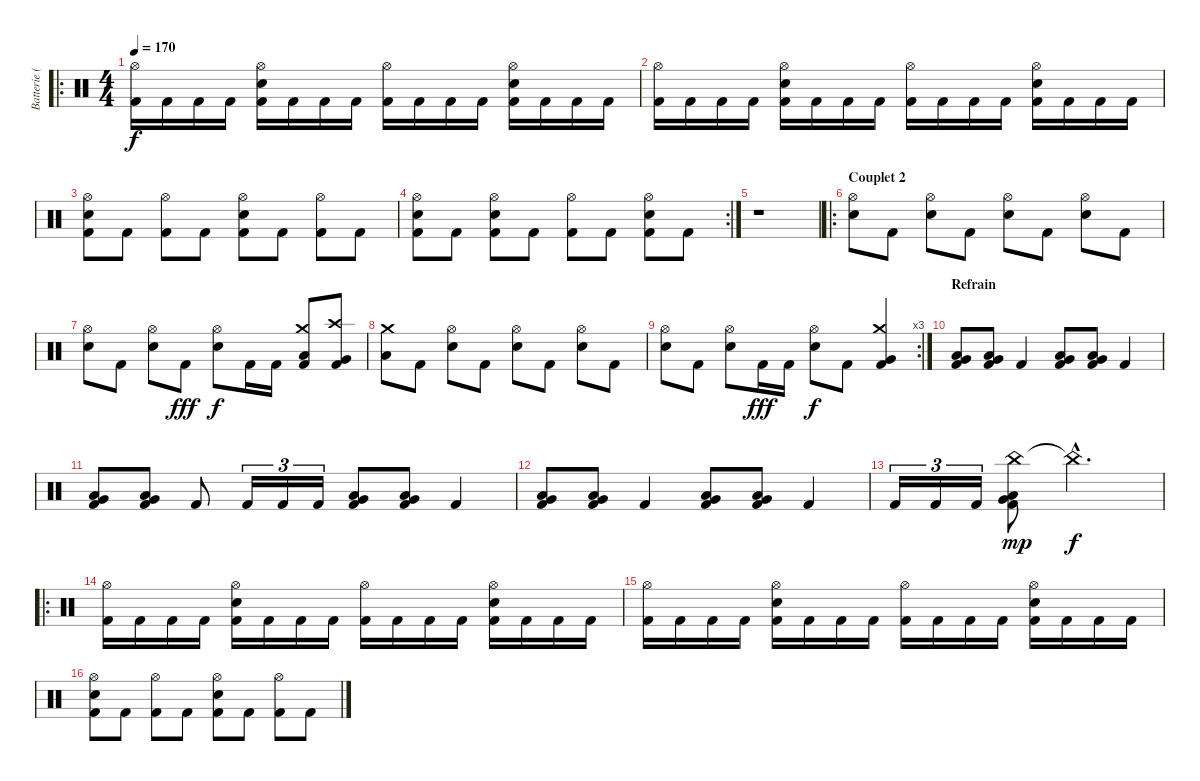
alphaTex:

\track ("Batterie (Racci \"Sketchy\" Shay)" "Batterie (") {instrument percussion}
\staff {score}
\articulation defaults
\ro
\ts (4 4)
\tempo 170
\clef neutral
\ks c
("Hi-Hat (open)" "Kick (hit) 2").16{dy f} "Kick (hit) 2".16 "Kick (hit) 2".16 "Kick (hit) 2".16 ("Hi-Hat (open)" "Electric Snare (hit)" "Kick (hit) 2").16 "Kick (hit) 2".16 "Kick (hit) 2".16 "Kick (hit) 2".16 ("Hi-Hat (open)" "Kick (hit) 2").16 "Kick (hit) 2".16 "Kick (hit) 2".16 "Kick (hit) 2".16 ("Hi-Hat (open)" "Electric Snare (hit)" "Kick (hit) 2").16 "Kick (hit) 2".16 "Kick (hit) 2".16 "Kick (hit) 2".16 |
("Hi-Hat (open)" "Kick (hit) 2").16 "Kick (hit) 2".16 "Kick (hit) 2".16 "Kick (hit) 2".16 ("Hi-Hat (open)" "Electric Snare (hit)" "Kick (hit) 2").16 "Kick (hit) 2".16 "Kick (hit) 2".16 "Kick (hit) 2".16 ("Hi-Hat (open)" "Kick (hit) 2").16 "Kick (hit) 2".16 "Kick (hit) 2".16 "Kick (hit) 2".16 ("Hi-Hat (open)" "Electric Snare (hit)" "Kick (hit) 2").16 "Kick (hit) 2".16 "Kick (hit) 2".16 "Kick (hit) 2".16 |
("Hi-Hat (open)" "Electric Snare (hit)" "Kick (hit) 2").8 "Kick (hit) 2".8 ("Hi-Hat (open)" "Kick (hit) 2").8 "Kick (hit) 2".8 ("Hi-Hat (open)" "Electric Snare (hit)" "Kick (hit) 2").8 "Kick (hit) 2".8 ("Hi-Hat (open)" "Kick (hit) 2").8 "Kick (hit) 2".8 |
\rc 2
("Hi-Hat (open)" "Electric Snare (hit)" "Kick (hit) 2").8 "Kick (hit) 2".8 ("Hi-Hat (open)" "Electric Snare (hit)" "Kick (hit) 2").8 "Kick (hit) 2".8 ("Hi-Hat (open)" "Kick (hit) 2").8 "Kick (hit) 2".8 ("Hi-Hat (open)" "Electric Snare (hit)" "Kick (hit) 2").8 "Kick (hit) 2".8 |
r.1 |
\ro
\section ("" "Couplet 2")
("Hi-Hat (open)" "Electric Snare (hit)").8 "Kick (hit) 2".8 ("Hi-Hat (open)" "Electric Snare (hit)").8 "Kick (hit) 2".8 ("Hi-Hat (open)" "Electric Snare (hit)").8 "Kick (hit) 2".8 ("Hi-Hat (open)" "Electric Snare (hit)").8 "Kick (hit) 2".8 |
("Hi-Hat (open)" "Electric Snare (hit)").8 "Kick (hit) 2".8 ("Hi-Hat (open)" "Electric Snare (hit)").8 "Kick (hit) 2".8{dy fff} ("Hi-Hat (open)" "Electric Snare (hit)").8{dy f} "Kick (hit) 2".16 "Kick (hit) 2".16 ("Crash medium (hit)" "Low Floor Tom (hit)" "Kick (hit) 2").8 ("Crash high (hit)" "Very Low Tom (hit)" "Kick (hit) 2").8 |
("Crash medium (hit)" "Low Floor Tom (hit)").8 "Kick (hit) 2".8 ("Hi-Hat (open)" "Electric Snare (hit)").8 "Kick (hit) 2".8 ("Hi-Hat (open)" "Electric Snare (hit)").8 "Kick (hit) 2".8 ("Hi-Hat (open)" "Electric Snare (hit)").8 "Kick (hit) 2".8 |
\rc 3
("Hi-Hat (open)" "Electric Snare (hit)").8 "Kick (hit) 2".8 ("Hi-Hat (open)" "Electric Snare (hit)").8 "Kick (hit) 2".16{dy fff} "Kick (hit) 2".16 ("Hi-Hat (open)" "Electric Snare (hit)").8{dy f} "Kick (hit) 2".8 ("Crash medium (hit)" "Very Low Tom (hit)" "Kick (hit) 2").4 |
\section ("" "Refrain")
("Very Low Tom (hit)" "Low Floor Tom (hit)" "Kick (hit) 2").8 ("Very Low Tom (hit)" "Low Floor Tom (hit)" "Kick (hit) 2").8 "Kick (hit) 2".4 ("Very Low Tom (hit)" "Low Floor Tom (hit)" "Kick (hit) 2").8 ("Very Low Tom (hit)" "Low Floor Tom (hit)" "Kick (hit) 2").8 "Kick (hit) 2".4 |
("Very Low Tom (hit)" "Low Floor Tom (hit)" "Kick (hit) 2").8 ("Very Low Tom (hit)" "Low Floor Tom (hit)" "Kick (hit) 2").8 "Kick (hit) 2".8 "Kick (hit) 2".16{tu (3 2)} "Kick (hit) 2".16{tu (3 2)} "Kick (hit) 2".16{tu (3 2)} ("Very Low Tom (hit)" "Low Floor Tom (hit)" "Kick (hit) 2").8 ("Very Low Tom (hit)" "Low Floor Tom (hit)" "Kick (hit) 2").8 "Kick (hit) 2".4 |
("Very Low Tom (hit)" "Low Floor Tom (hit)" "Kick (hit) 2").8 ("Very Low Tom (hit)" "Low Floor Tom (hit)" "Kick (hit) 2").8 "Kick (hit) 2".4 ("Very Low Tom (hit)" "Low Floor Tom (hit)" "Kick (hit) 2").8 ("Very Low Tom (hit)" "Low Floor Tom (hit)" "Kick (hit) 2").8 "Kick (hit) 2".4 |
"Kick (hit) 2".16{tu (3 2)} "Kick (hit) 2".16{tu (3 2)} "Kick (hit) 2".16{tu (3 2)} ("China (hit)" "Very Low Tom (hit)" "Low Floor Tom (hit)" "Kick (hit) 2").8{dy mp} "China (hit)"{hac t}.2{d dy f} |
\ro
("Hi-Hat (open)" "Kick (hit) 2").16 "Kick (hit) 2".16 "Kick (hit) 2".16 "Kick (hit) 2".16 ("Hi-Hat (open)" "Electric Snare (hit)" "Kick (hit) 2").16 "Kick (hit) 2".16 "Kick (hit) 2".16 "Kick (hit) 2".16 ("Hi-Hat (open)" "Kick (hit) 2").16 "Kick (hit) 2".16 "Kick (hit) 2".16 "Kick (hit) 2".16 ("Hi-Hat (open)" "Electric Snare (hit)" "Kick (hit) 2").16 "Kick (hit) 2".16 "Kick (hit) 2".16 "Kick (hit) 2".16 |
("Hi-Hat (open)" "Kick (hit) 2").16 "Kick (hit) 2".16 "Kick (hit) 2".16 "Kick (hit) 2".16 ("Hi-Hat (open)" "Electric Snare (hit)" "Kick (hit) 2").16 "Kick (hit) 2".16 "Kick (hit) 2".16 "Kick (hit) 2".16 ("Hi-Hat (open)" "Kick (hit) 2").16 "Kick (hit) 2".16 "Kick (hit) 2".16 "Kick (hit) 2".16 ("Hi-Hat (open)" "Electric Snare (hit)" "Kick (hit) 2").16 "Kick (hit) 2".16 "Kick (hit) 2".16 "Kick (hit) 2".16 |
("Hi-Hat (open)" "Electric Snare (hit)" "Kick (hit) 2").8 "Kick (hit) 2".8 ("Hi-Hat (open)" "Kick (hit) 2").8 "Kick (hit) 2".8 ("Hi-Hat (open)" "Electric Snare (hit)" "Kick (hit) 2").8 "Kick (hit) 2".8 ("Hi-Hat (open)" "Kick (hit) 2").8 "Kick (hit) 2".8
